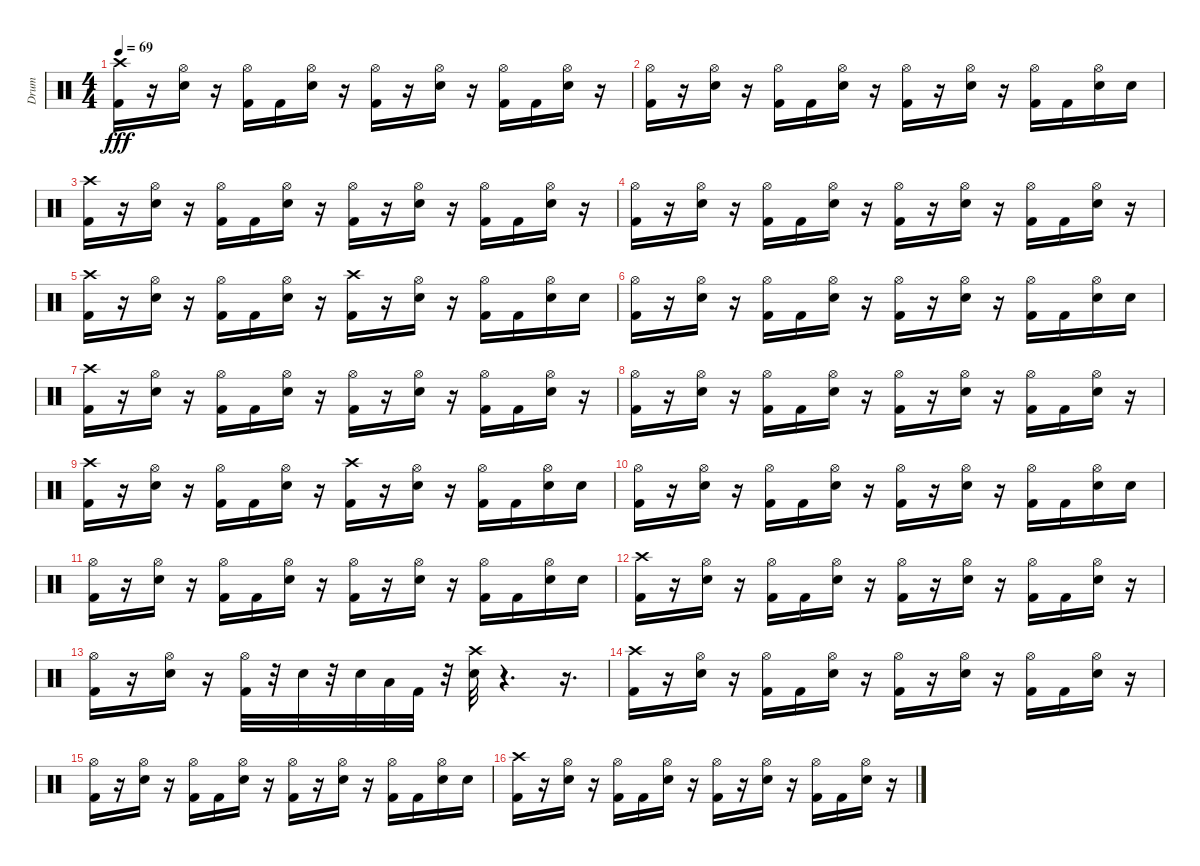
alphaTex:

\track ("Drum" "Drum") {instrument percussion}
\staff {score}
\articulation defaults
\ts (4 4)
\tempo 69
\clef neutral
\ks c
("Crash high (hit)" "Kick (hit) 2").16{dy fff} r.16 ("Hi-Hat (open)" "Electric Snare (hit)").16 r.16 ("Kick (hit) 2" "Hi-Hat (open)").16 "Kick (hit) 2".16 ("Electric Snare (hit)" "Hi-Hat (open)").16 r.16 ("Hi-Hat (open)" "Kick (hit) 2").16 r.16 ("Hi-Hat (open)" "Electric Snare (hit)").16 r.16 ("Kick (hit) 2" "Hi-Hat (open)").16 "Kick (hit) 2".16 ("Hi-Hat (open)" "Electric Snare (hit)").16 r.16 |
("Hi-Hat (open)" "Kick (hit) 2").16 r.16 ("Electric Snare (hit)" "Hi-Hat (open)").16 r.16 ("Kick (hit) 2" "Hi-Hat (open)").16 "Kick (hit) 2".16 ("Electric Snare (hit)" "Hi-Hat (open)").16 r.16 ("Hi-Hat (open)" "Kick (hit) 2").16 r.16 ("Electric Snare (hit)" "Hi-Hat (open)").16 r.16 ("Kick (hit) 2" "Hi-Hat (open)").16 "Kick (hit) 2".16 ("Electric Snare (hit)" "Hi-Hat (open)").16 "Electric Snare (hit)".16 |
("Crash high (hit)" "Kick (hit) 2").16 r.16 ("Hi-Hat (open)" "Electric Snare (hit)").16 r.16 ("Kick (hit) 2" "Hi-Hat (open)").16 "Kick (hit) 2".16 ("Hi-Hat (open)" "Electric Snare (hit)").16 r.16 ("Hi-Hat (open)" "Kick (hit) 2").16 r.16 ("Electric Snare (hit)" "Hi-Hat (open)").16 r.16 ("Kick (hit) 2" "Hi-Hat (open)").16 "Kick (hit) 2".16 ("Electric Snare (hit)" "Hi-Hat (open)").16 r.16 |
("Hi-Hat (open)" "Kick (hit) 2").16 r.16 ("Electric Snare (hit)" "Hi-Hat (open)").16 r.16 ("Hi-Hat (open)" "Kick (hit) 2").16 "Kick (hit) 2".16 ("Electric Snare (hit)" "Hi-Hat (open)").16 r.16 ("Hi-Hat (open)" "Kick (hit) 2").16 r.16 ("Electric Snare (hit)" "Hi-Hat (open)").16 r.16 ("Hi-Hat (open)" "Kick (hit) 2").16 "Kick (hit) 2".16 ("Hi-Hat (open)" "Electric Snare (hit)").16 r.16 |
("Crash high (hit)" "Kick (hit) 2").16 r.16 ("Electric Snare (hit)" "Hi-Hat (open)").16 r.16 ("Kick (hit) 2" "Hi-Hat (open)").16 "Kick (hit) 2".16 ("Hi-Hat (open)" "Electric Snare (hit)").16 r.16 ("Kick (hit) 2" "Crash high (hit)").16 r.16 ("Electric Snare (hit)" "Hi-Hat (open)").16 r.16 ("Kick (hit) 2" "Hi-Hat (open)").16 "Kick (hit) 2".16 ("Hi-Hat (open)" "Electric Snare (hit)").16 "Electric Snare (hit)".16 |
("Hi-Hat (open)" "Kick (hit) 2").16 r.16 ("Electric Snare (hit)" "Hi-Hat (open)").16 r.16 ("Kick (hit) 2" "Hi-Hat (open)").16 "Kick (hit) 2".16 ("Electric Snare (hit)" "Hi-Hat (open)").16 r.16 ("Hi-Hat (open)" "Kick (hit) 2").16 r.16 ("Electric Snare (hit)" "Hi-Hat (open)").16 r.16 ("Kick (hit) 2" "Hi-Hat (open)").16 "Kick (hit) 2".16 ("Electric Snare (hit)" "Hi-Hat (open)").16 "Electric Snare (hit)".16 |
("Crash high (hit)" "Kick (hit) 2").16 r.16 ("Hi-Hat (open)" "Electric Snare (hit)").16 r.16 ("Kick (hit) 2" "Hi-Hat (open)").16 "Kick (hit) 2".16 ("Hi-Hat (open)" "Electric Snare (hit)").16 r.16 ("Hi-Hat (open)" "Kick (hit) 2").16 r.16 ("Electric Snare (hit)" "Hi-Hat (open)").16 r.16 ("Kick (hit) 2" "Hi-Hat (open)").16 "Kick (hit) 2".16 ("Electric Snare (hit)" "Hi-Hat (open)").16 r.16 |
("Hi-Hat (open)" "Kick (hit) 2").16 r.16 ("Electric Snare (hit)" "Hi-Hat (open)").16 r.16 ("Hi-Hat (open)" "Kick (hit) 2").16 "Kick (hit) 2".16 ("Electric Snare (hit)" "Hi-Hat (open)").16 r.16 ("Hi-Hat (open)" "Kick (hit) 2").16 r.16 ("Electric Snare (hit)" "Hi-Hat (open)").16 r.16 ("Hi-Hat (open)" "Kick (hit) 2").16 "Kick (hit) 2".16 ("Hi-Hat (open)" "Electric Snare (hit)").16 r.16 |
("Crash high (hit)" "Kick (hit) 2").16 r.16 ("Electric Snare (hit)" "Hi-Hat (open)").16 r.16 ("Kick (hit) 2" "Hi-Hat (open)").16 "Kick (hit) 2".16 ("Hi-Hat (open)" "Electric Snare (hit)").16 r.16 ("Kick (hit) 2" "Crash high (hit)").16 r.16 ("Electric Snare (hit)" "Hi-Hat (open)").16 r.16 ("Kick (hit) 2" "Hi-Hat (open)").16 "Kick (hit) 2".16 ("Hi-Hat (open)" "Electric Snare (hit)").16 "Electric Snare (hit)".16 |
("Hi-Hat (open)" "Kick (hit) 2").16 r.16 ("Electric Snare (hit)" "Hi-Hat (open)").16 r.16 ("Kick (hit) 2" "Hi-Hat (open)").16 "Kick (hit) 2".16 ("Electric Snare (hit)" "Hi-Hat (open)").16 r.16 ("Hi-Hat (open)" "Kick (hit) 2").16 r.16 ("Electric Snare (hit)" "Hi-Hat (open)").16 r.16 ("Kick (hit) 2" "Hi-Hat (open)").16 "Kick (hit) 2".16 ("Electric Snare (hit)" "Hi-Hat (open)").16 "Electric Snare (hit)".16 |
("Hi-Hat (open)" "Kick (hit) 2").16 r.16 ("Electric Snare (hit)" "Hi-Hat (open)").16 r.16 ("Kick (hit) 2" "Hi-Hat (open)").16 "Kick (hit) 2".16 ("Electric Snare (hit)" "Hi-Hat (open)").16 r.16 ("Hi-Hat (open)" "Kick (hit) 2").16 r.16 ("Electric Snare (hit)" "Hi-Hat (open)").16 r.16 ("Kick (hit) 2" "Hi-Hat (open)").16 "Kick (hit) 2".16 ("Electric Snare (hit)" "Hi-Hat (open)").16 "Electric Snare (hit)".16 |
("Crash high (hit)" "Kick (hit) 2").16 r.16 ("Hi-Hat (open)" "Electric Snare (hit)").16 r.16 ("Kick (hit) 2" "Hi-Hat (open)").16 "Kick (hit) 2".16 ("Electric Snare (hit)" "Hi-Hat (open)").16 r.16 ("Kick (hit) 2" "Hi-Hat (open)").16 r.16 ("Electric Snare (hit)" "Hi-Hat (open)").16 r.16 ("Kick (hit) 2" "Hi-Hat (open)").16 "Kick (hit) 2".16 ("Hi-Hat (open)" "Electric Snare (hit)").16 r.16 |
("Kick (hit) 2" "Hi-Hat (open)").16 r.16 ("Electric Snare (hit)" "Hi-Hat (open)").16 r.16 ("Kick (hit) 2" "Hi-Hat (open)").32 r.32 "Electric Snare (hit)".32 r.32 "Electric Snare (hit)".32 "Low Tom (hit)".32 "Kick (hit) 2".32 r.32 ("Electric Snare (hit)" "Crash high (hit)").32 r.4{d} r.16{d} |
("Crash high (hit)" "Kick (hit) 2").16 r.16 ("Hi-Hat (open)" "Electric Snare (hit)").16 r.16 ("Kick (hit) 2" "Hi-Hat (open)").16 "Kick (hit) 2".16 ("Electric Snare (hit)" "Hi-Hat (open)").16 r.16 ("Hi-Hat (open)" "Kick (hit) 2").16 r.16 ("Hi-Hat (open)" "Electric Snare (hit)").16 r.16 ("Kick (hit) 2" "Hi-Hat (open)").16 "Kick (hit) 2".16 ("Hi-Hat (open)" "Electric Snare (hit)").16 r.16 |
("Hi-Hat (open)" "Kick (hit) 2").16 r.16 ("Electric Snare (hit)" "Hi-Hat (open)").16 r.16 ("Kick (hit) 2" "Hi-Hat (open)").16 "Kick (hit) 2".16 ("Electric Snare (hit)" "Hi-Hat (open)").16 r.16 ("Hi-Hat (open)" "Kick (hit) 2").16 r.16 ("Electric Snare (hit)" "Hi-Hat (open)").16 r.16 ("Kick (hit) 2" "Hi-Hat (open)").16 "Kick (hit) 2".16 ("Electric Snare (hit)" "Hi-Hat (open)").16 "Electric Snare (hit)".16 |
("Crash high (hit)" "Kick (hit) 2").16 r.16 ("Hi-Hat (open)" "Electric Snare (hit)").16 r.16 ("Kick (hit) 2" "Hi-Hat (open)").16 "Kick (hit) 2".16 ("Electric Snare (hit)" "Hi-Hat (open)").16 r.16 ("Kick (hit) 2" "Hi-Hat (open)").16 r.16 ("Electric Snare (hit)" "Hi-Hat (open)").16 r.16 ("Kick (hit) 2" "Hi-Hat (open)").16 "Kick (hit) 2".16 ("Hi-Hat (open)" "Electric Snare (hit)").16 r.16
